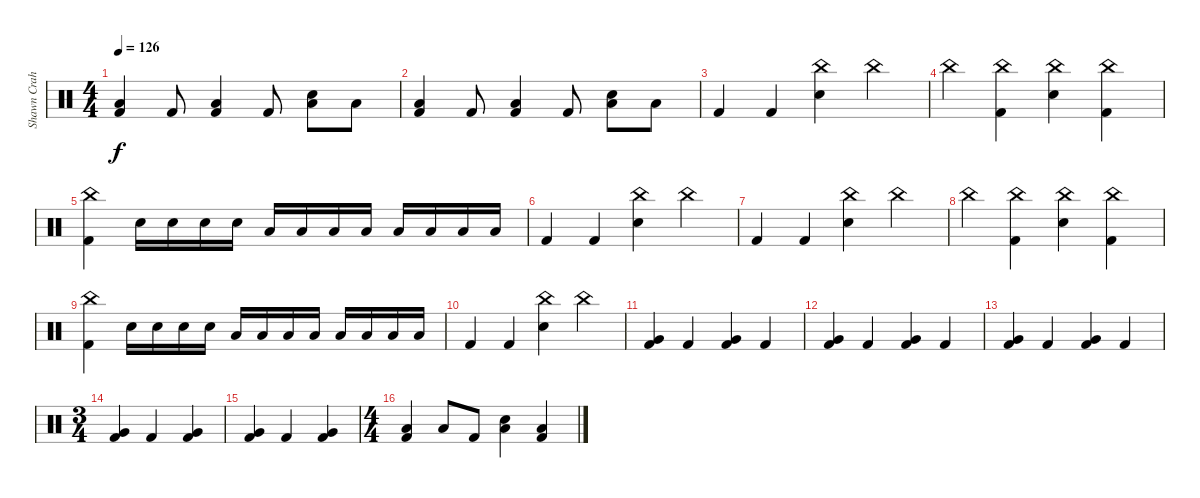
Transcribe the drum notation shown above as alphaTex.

\track ("Shawn Crahan" "Shawn Crah") {instrument percussion}
\staff {score}
\articulation defaults
\ts (4 4)
\tempo 126
\clef neutral
\ks c
("Low Tom (hit)" "Kick (hit) 2").4{dy f} "Kick (hit) 2".8 ("Low Tom (hit)" "Kick (hit) 2").4 "Kick (hit) 2".8 ("Low Tom (hit)" "Snare (hit) 2").8 "Low Tom (hit)".8 |
("Low Tom (hit)" "Kick (hit) 2").4 "Kick (hit) 2".8 ("Low Tom (hit)" "Kick (hit) 2").4 "Kick (hit) 2".8 ("Low Tom (hit)" "Snare (hit) 2").8 "Low Tom (hit)".8 |
"Kick (hit) 2".4 "Kick (hit) 2".4 ("China (hit)" "Snare (hit) 2").4 "China (hit)".4 |
"China (hit)".4 ("China (hit)" "Kick (hit) 2").4 ("China (hit)" "Snare (hit) 2").4 ("China (hit)" "Kick (hit) 2").4 |
("China (hit)" "Kick (hit) 2").4 "Snare (hit) 2".16 "Snare (hit) 2".16 "Snare (hit) 2".16 "Snare (hit) 2".16 "Low Tom (hit)".16 "Low Tom (hit)".16 "Low Tom (hit)".16 "Low Tom (hit)".16 "Low Tom (hit)".16 "Low Tom (hit)".16 "Low Tom (hit)".16 "Low Tom (hit)".16 |
"Kick (hit) 2".4 "Kick (hit) 2".4 ("China (hit)" "Snare (hit) 2").4 "China (hit)".4 |
"Kick (hit) 2".4 "Kick (hit) 2".4 ("China (hit)" "Snare (hit) 2").4 "China (hit)".4 |
"China (hit)".4 ("China (hit)" "Kick (hit) 2").4 ("China (hit)" "Snare (hit) 2").4 ("China (hit)" "Kick (hit) 2").4 |
("China (hit)" "Kick (hit) 2").4 "Snare (hit) 2".16 "Snare (hit) 2".16 "Snare (hit) 2".16 "Snare (hit) 2".16 "Low Tom (hit)".16 "Low Tom (hit)".16 "Low Tom (hit)".16 "Low Tom (hit)".16 "Low Tom (hit)".16 "Low Tom (hit)".16 "Low Tom (hit)".16 "Low Tom (hit)".16 |
"Kick (hit) 2".4 "Kick (hit) 2".4 ("China (hit)" "Snare (hit) 2").4 "China (hit)".4 |
("Kick (hit) 2" "Very Low Tom (hit)").4 "Kick (hit) 2".4 ("Kick (hit) 2" "Very Low Tom (hit)").4 "Kick (hit) 2".4 |
("Kick (hit) 2" "Very Low Tom (hit)").4 "Kick (hit) 2".4 ("Kick (hit) 2" "Very Low Tom (hit)").4 "Kick (hit) 2".4 |
("Kick (hit) 2" "Very Low Tom (hit)").4 "Kick (hit) 2".4 ("Kick (hit) 2" "Very Low Tom (hit)").4 "Kick (hit) 2".4 |
\ts (3 4)
("Kick (hit) 2" "Very Low Tom (hit)").4 "Kick (hit) 2".4 ("Kick (hit) 2" "Very Low Tom (hit)").4 |
("Kick (hit) 2" "Very Low Tom (hit)").4 "Kick (hit) 2".4 ("Kick (hit) 2" "Very Low Tom (hit)").4 |
\ts (4 4)
("Low Tom (hit)" "Kick (hit) 2").4 "Low Tom (hit)".8 "Kick (hit) 2".8 ("Low Tom (hit)" "Electric Snare (hit)").4 ("Low Tom (hit)" "Kick (hit) 2").4
